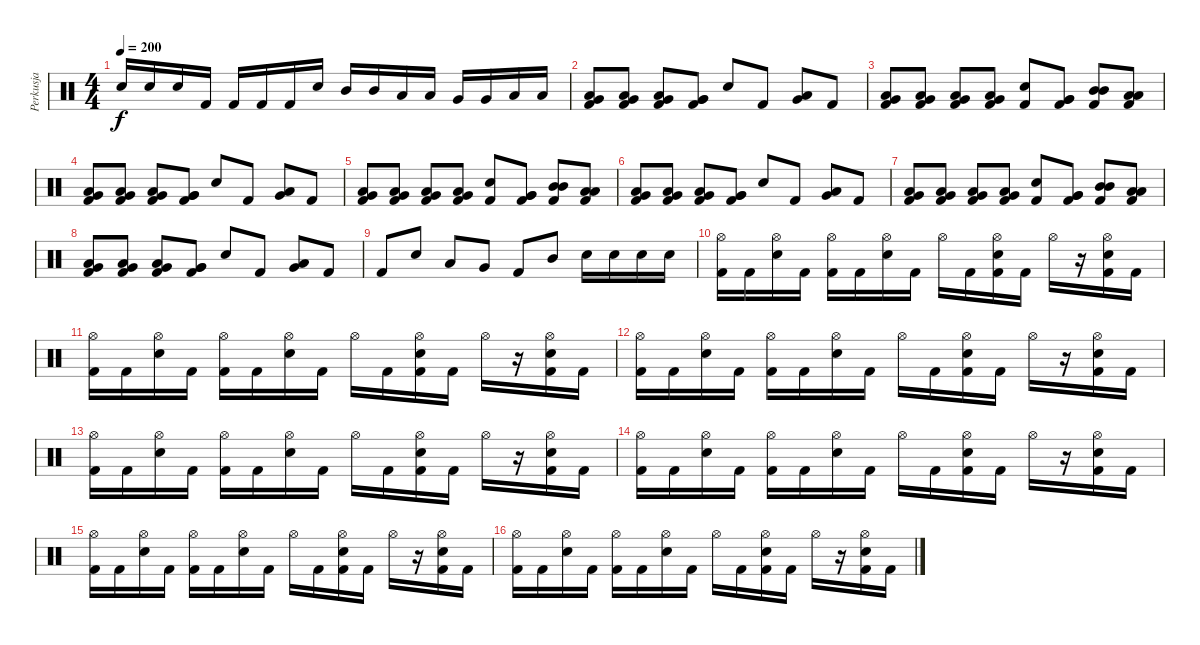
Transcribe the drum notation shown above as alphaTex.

\track ("Perkusja" "Perkusja") {instrument percussion}
\staff {score}
\articulation defaults
\ts (4 4)
\tempo 200
\clef neutral
\ks c "Snare (hit) 2".16{dy f} "Snare (hit) 2".16 "Snare (hit) 2".16 "Kick (hit) 2".16 "Kick (hit) 2".16 "Kick (hit) 2".16 "Kick (hit) 2".16 "Snare (hit) 2".16 "Mid Tom (hit)".16 "Mid Tom (hit)".16 "Low Tom (hit)".16 "Low Tom (hit)".16 "Very Low Tom (hit)".16 "Very Low Tom (hit)".16 "Low Floor Tom (hit)".16 "Low Floor Tom (hit)".16
|
("Very Low Tom (hit)" "Low Tom (hit)" "Kick (hit) 2").8 ("Very Low Tom (hit)" "Low Tom (hit)" "Kick (hit) 2").8 ("Very Low Tom (hit)" "Low Tom (hit)" "Kick (hit) 2").8 ("Very Low Tom (hit)" "Very Low Tom (hit)" "Kick (hit) 2").8 "Snare (hit) 2".8 "Kick (hit) 2".8 ("Low Tom (hit)" "Very Low Tom (hit)").8 "Kick (hit) 2".8 |
("Very Low Tom (hit)" "Low Floor Tom (hit)" "Kick (hit) 2").8 ("Very Low Tom (hit)" "Low Floor Tom (hit)" "Kick (hit) 2").8 ("Very Low Tom (hit)" "Low Floor Tom (hit)" "Kick (hit) 2").8 ("Very Low Tom (hit)" "Low Floor Tom (hit)" "Kick (hit) 2").8 ("Snare (hit) 2" "Kick (hit) 2").8 ("Very Low Tom (hit)" "Very Low Tom (hit)" "Kick (hit) 2").8 ("Mid Tom (hit)" "Mid Tom (hit)" "Kick (hit) 2").8 ("Low Tom (hit)" "Low Tom (hit)" "Kick (hit) 2").8 |
("Very Low Tom (hit)" "Low Tom (hit)" "Kick (hit) 2").8 ("Very Low Tom (hit)" "Low Tom (hit)" "Kick (hit) 2").8 ("Very Low Tom (hit)" "Low Tom (hit)" "Kick (hit) 2").8 ("Very Low Tom (hit)" "Very Low Tom (hit)" "Kick (hit) 2").8 "Snare (hit) 2".8 "Kick (hit) 2".8 ("Low Tom (hit)" "Very Low Tom (hit)").8 "Kick (hit) 2".8 |
("Very Low Tom (hit)" "Low Floor Tom (hit)" "Kick (hit) 2").8 ("Very Low Tom (hit)" "Low Floor Tom (hit)" "Kick (hit) 2").8 ("Very Low Tom (hit)" "Low Floor Tom (hit)" "Kick (hit) 2").8 ("Very Low Tom (hit)" "Low Floor Tom (hit)" "Kick (hit) 2").8 ("Snare (hit) 2" "Kick (hit) 2").8 ("Very Low Tom (hit)" "Very Low Tom (hit)" "Kick (hit) 2").8 ("Mid Tom (hit)" "Mid Tom (hit)" "Kick (hit) 2").8 ("Low Tom (hit)" "Low Tom (hit)" "Kick (hit) 2").8 |
("Very Low Tom (hit)" "Low Tom (hit)" "Kick (hit) 2").8 ("Very Low Tom (hit)" "Low Tom (hit)" "Kick (hit) 2").8 ("Very Low Tom (hit)" "Low Tom (hit)" "Kick (hit) 2").8 ("Very Low Tom (hit)" "Very Low Tom (hit)" "Kick (hit) 2").8 "Snare (hit) 2".8 "Kick (hit) 2".8 ("Low Tom (hit)" "Very Low Tom (hit)").8 "Kick (hit) 2".8 |
("Very Low Tom (hit)" "Low Floor Tom (hit)" "Kick (hit) 2").8 ("Very Low Tom (hit)" "Low Floor Tom (hit)" "Kick (hit) 2").8 ("Very Low Tom (hit)" "Low Floor Tom (hit)" "Kick (hit) 2").8 ("Very Low Tom (hit)" "Low Floor Tom (hit)" "Kick (hit) 2").8 ("Snare (hit) 2" "Kick (hit) 2").8 ("Very Low Tom (hit)" "Very Low Tom (hit)" "Kick (hit) 2").8 ("Mid Tom (hit)" "Mid Tom (hit)" "Kick (hit) 2").8 ("Low Tom (hit)" "Low Tom (hit)" "Kick (hit) 2").8 |
("Very Low Tom (hit)" "Low Tom (hit)" "Kick (hit) 2").8 ("Very Low Tom (hit)" "Low Tom (hit)" "Kick (hit) 2").8 ("Very Low Tom (hit)" "Low Tom (hit)" "Kick (hit) 2").8 ("Very Low Tom (hit)" "Very Low Tom (hit)" "Kick (hit) 2").8 "Snare (hit) 2".8 "Kick (hit) 2".8 ("Low Tom (hit)" "Very Low Tom (hit)").8 "Kick (hit) 2".8 |
"Kick (hit) 2".8 "Snare (hit) 2".8 "Low Tom (hit)".8 "Very Low Tom (hit)".8 "Kick (hit) 2".8 "Mid Tom (hit)".8 "Snare (hit) 2".16 "Snare (hit) 2".16 "Snare (hit) 2".16 "Snare (hit) 2".16 |
("Hi-Hat (open)" "Kick (hit) 2").16 "Kick (hit) 2".16 ("Hi-Hat (open)" "Snare (hit) 2").16 "Kick (hit) 2".16 ("Hi-Hat (open)" "Kick (hit) 2").16 "Kick (hit) 2".16 ("Hi-Hat (open)" "Snare (hit) 2").16 "Kick (hit) 2".16 "Hi-Hat (open)".16 "Kick (hit) 2".16 ("Hi-Hat (open)" "Snare (hit) 2" "Kick (hit) 2").16 "Kick (hit) 2".16 "Hi-Hat (open)".16 r.16 ("Hi-Hat (open)" "Snare (hit) 2" "Kick (hit) 2").16 "Kick (hit) 2".16 |
("Hi-Hat (open)" "Kick (hit) 2").16 "Kick (hit) 2".16 ("Hi-Hat (open)" "Snare (hit) 2").16 "Kick (hit) 2".16 ("Hi-Hat (open)" "Kick (hit) 2").16 "Kick (hit) 2".16 ("Hi-Hat (open)" "Snare (hit) 2").16 "Kick (hit) 2".16 "Hi-Hat (open)".16 "Kick (hit) 2".16 ("Hi-Hat (open)" "Snare (hit) 2" "Kick (hit) 2").16 "Kick (hit) 2".16 "Hi-Hat (open)".16 r.16 ("Hi-Hat (open)" "Snare (hit) 2" "Kick (hit) 2").16 "Kick (hit) 2".16 |
("Hi-Hat (open)" "Kick (hit) 2").16 "Kick (hit) 2".16 ("Hi-Hat (open)" "Snare (hit) 2").16 "Kick (hit) 2".16 ("Hi-Hat (open)" "Kick (hit) 2").16 "Kick (hit) 2".16 ("Hi-Hat (open)" "Snare (hit) 2").16 "Kick (hit) 2".16 "Hi-Hat (open)".16 "Kick (hit) 2".16 ("Hi-Hat (open)" "Snare (hit) 2" "Kick (hit) 2").16 "Kick (hit) 2".16 "Hi-Hat (open)".16 r.16 ("Hi-Hat (open)" "Snare (hit) 2" "Kick (hit) 2").16 "Kick (hit) 2".16 |
("Hi-Hat (open)" "Kick (hit) 2").16 "Kick (hit) 2".16 ("Hi-Hat (open)" "Snare (hit) 2").16 "Kick (hit) 2".16 ("Hi-Hat (open)" "Kick (hit) 2").16 "Kick (hit) 2".16 ("Hi-Hat (open)" "Snare (hit) 2").16 "Kick (hit) 2".16 "Hi-Hat (open)".16 "Kick (hit) 2".16 ("Hi-Hat (open)" "Snare (hit) 2" "Kick (hit) 2").16 "Kick (hit) 2".16 "Hi-Hat (open)".16 r.16 ("Hi-Hat (open)" "Snare (hit) 2" "Kick (hit) 2").16 "Kick (hit) 2".16 |
("Hi-Hat (open)" "Kick (hit) 2").16 "Kick (hit) 2".16 ("Hi-Hat (open)" "Snare (hit) 2").16 "Kick (hit) 2".16 ("Hi-Hat (open)" "Kick (hit) 2").16 "Kick (hit) 2".16 ("Hi-Hat (open)" "Snare (hit) 2").16 "Kick (hit) 2".16 "Hi-Hat (open)".16 "Kick (hit) 2".16 ("Hi-Hat (open)" "Snare (hit) 2" "Kick (hit) 2").16 "Kick (hit) 2".16 "Hi-Hat (open)".16 r.16 ("Hi-Hat (open)" "Snare (hit) 2" "Kick (hit) 2").16 "Kick (hit) 2".16 |
("Hi-Hat (open)" "Kick (hit) 2").16 "Kick (hit) 2".16 ("Hi-Hat (open)" "Snare (hit) 2").16 "Kick (hit) 2".16 ("Hi-Hat (open)" "Kick (hit) 2").16 "Kick (hit) 2".16 ("Hi-Hat (open)" "Snare (hit) 2").16 "Kick (hit) 2".16 "Hi-Hat (open)".16 "Kick (hit) 2".16 ("Hi-Hat (open)" "Snare (hit) 2" "Kick (hit) 2").16 "Kick (hit) 2".16 "Hi-Hat (open)".16 r.16 ("Hi-Hat (open)" "Snare (hit) 2" "Kick (hit) 2").16 "Kick (hit) 2".16 |
("Hi-Hat (open)" "Kick (hit) 2").16 "Kick (hit) 2".16 ("Hi-Hat (open)" "Snare (hit) 2").16 "Kick (hit) 2".16 ("Hi-Hat (open)" "Kick (hit) 2").16 "Kick (hit) 2".16 ("Hi-Hat (open)" "Snare (hit) 2").16 "Kick (hit) 2".16 "Hi-Hat (open)".16 "Kick (hit) 2".16 ("Hi-Hat (open)" "Snare (hit) 2" "Kick (hit) 2").16 "Kick (hit) 2".16 "Hi-Hat (open)".16 r.16 ("Hi-Hat (open)" "Snare (hit) 2" "Kick (hit) 2").16 "Kick (hit) 2".16
